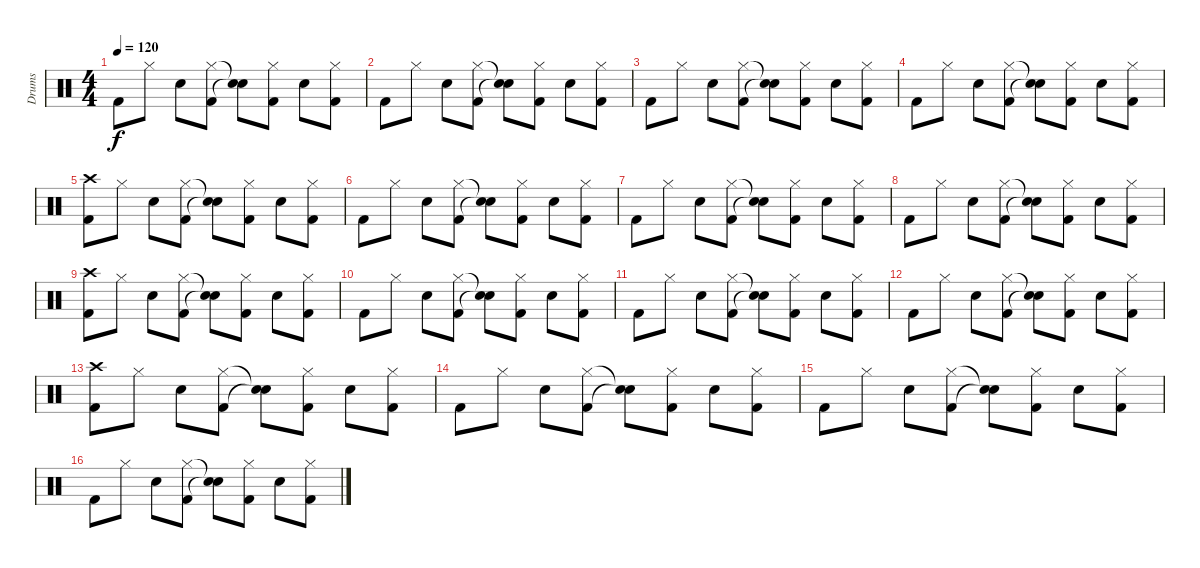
\track ("Drums" "Drums") {instrument percussion}
\staff {score}
\articulation defaults
\ts (4 4)
\tempo 120
\clef neutral
\ks c "Kick (hit) 2".8{dy f} "Hi-Hat (closed)".8 "Electric Snare (hit)".8
("Hi-Hat (closed)" "Kick (hit) 2").8 ("Snare (hit)"{t} "Snare (hit)"{t}).8 ("Hi-Hat (closed)" "Kick (hit) 2").8 "Electric Snare (hit)".8 ("Hi-Hat (closed)" "Kick (hit) 2").8 |
"Kick (hit) 2".8 "Hi-Hat (closed)".8 "Electric Snare (hit)".8 ("Hi-Hat (closed)" "Kick (hit) 2").8 ("Snare (hit)"{t} "Snare (hit)"{t}).8 ("Hi-Hat (closed)" "Kick (hit) 2").8 "Electric Snare (hit)".8 ("Hi-Hat (closed)" "Kick (hit) 2").8 |
"Kick (hit) 2".8 "Hi-Hat (closed)".8 "Electric Snare (hit)".8 ("Hi-Hat (closed)" "Kick (hit) 2").8 ("Snare (hit)"{t} "Snare (hit)"{t}).8 ("Hi-Hat (closed)" "Kick (hit) 2").8 "Electric Snare (hit)".8 ("Hi-Hat (closed)" "Kick (hit) 2").8 |
"Kick (hit) 2".8 "Hi-Hat (closed)".8 "Electric Snare (hit)".8 ("Hi-Hat (closed)" "Kick (hit) 2").8 ("Snare (hit)"{t} "Snare (hit)"{t}).8 ("Hi-Hat (closed)" "Kick (hit) 2").8 "Electric Snare (hit)".8 ("Hi-Hat (closed)" "Kick (hit) 2").8 |
("Crash high (hit)" "Kick (hit) 2").8 "Hi-Hat (closed)".8 "Electric Snare (hit)".8 ("Hi-Hat (closed)" "Kick (hit) 2").8 ("Snare (hit)"{t} "Snare (hit)"{t}).8 ("Hi-Hat (closed)" "Kick (hit) 2").8 "Electric Snare (hit)".8 ("Hi-Hat (closed)" "Kick (hit) 2").8 |
"Kick (hit) 2".8 "Hi-Hat (closed)".8 "Electric Snare (hit)".8 ("Hi-Hat (closed)" "Kick (hit) 2").8 ("Snare (hit)"{t} "Snare (hit)"{t}).8 ("Hi-Hat (closed)" "Kick (hit) 2").8 "Electric Snare (hit)".8 ("Hi-Hat (closed)" "Kick (hit) 2").8 |
"Kick (hit) 2".8 "Hi-Hat (closed)".8 "Electric Snare (hit)".8 ("Hi-Hat (closed)" "Kick (hit) 2").8 ("Snare (hit)"{t} "Snare (hit)"{t}).8 ("Hi-Hat (closed)" "Kick (hit) 2").8 "Electric Snare (hit)".8 ("Hi-Hat (closed)" "Kick (hit) 2").8 |
"Kick (hit) 2".8 "Hi-Hat (closed)".8 "Electric Snare (hit)".8 ("Hi-Hat (closed)" "Kick (hit) 2").8 ("Snare (hit)"{t} "Snare (hit)"{t}).8 ("Hi-Hat (closed)" "Kick (hit) 2").8 "Electric Snare (hit)".8 ("Hi-Hat (closed)" "Kick (hit) 2").8 |
("Crash high (hit)" "Kick (hit) 2").8 "Hi-Hat (closed)".8 "Electric Snare (hit)".8 ("Hi-Hat (closed)" "Kick (hit) 2").8 ("Snare (hit)"{t} "Snare (hit)"{t}).8 ("Hi-Hat (closed)" "Kick (hit) 2").8 "Electric Snare (hit)".8 ("Hi-Hat (closed)" "Kick (hit) 2").8 |
"Kick (hit) 2".8 "Hi-Hat (closed)".8 "Electric Snare (hit)".8 ("Hi-Hat (closed)" "Kick (hit) 2").8 ("Snare (hit)"{t} "Snare (hit)"{t}).8 ("Hi-Hat (closed)" "Kick (hit) 2").8 "Electric Snare (hit)".8 ("Hi-Hat (closed)" "Kick (hit) 2").8 |
"Kick (hit) 2".8 "Hi-Hat (closed)".8 "Electric Snare (hit)".8 ("Hi-Hat (closed)" "Kick (hit) 2").8 ("Snare (hit)"{t} "Snare (hit)"{t}).8 ("Hi-Hat (closed)" "Kick (hit) 2").8 "Electric Snare (hit)".8 ("Hi-Hat (closed)" "Kick (hit) 2").8 |
"Kick (hit) 2".8 "Hi-Hat (closed)".8 "Electric Snare (hit)".8 ("Hi-Hat (closed)" "Kick (hit) 2").8 ("Snare (hit)"{t} "Snare (hit)"{t}).8 ("Hi-Hat (closed)" "Kick (hit) 2").8 "Electric Snare (hit)".8 ("Hi-Hat (closed)" "Kick (hit) 2").8 |
("Crash high (hit)" "Kick (hit) 2").8 "Hi-Hat (closed)".8 "Electric Snare (hit)".8 ("Hi-Hat (closed)" "Kick (hit) 2").8 ("Snare (hit)"{t} "Snare (hit)"{t}).8 ("Hi-Hat (closed)" "Kick (hit) 2").8 "Electric Snare (hit)".8 ("Hi-Hat (closed)" "Kick (hit) 2").8 |
"Kick (hit) 2".8 "Hi-Hat (closed)".8 "Electric Snare (hit)".8 ("Hi-Hat (closed)" "Kick (hit) 2").8 ("Snare (hit)"{t} "Snare (hit)"{t}).8 ("Hi-Hat (closed)" "Kick (hit) 2").8 "Electric Snare (hit)".8 ("Hi-Hat (closed)" "Kick (hit) 2").8 |
"Kick (hit) 2".8 "Hi-Hat (closed)".8 "Electric Snare (hit)".8 ("Hi-Hat (closed)" "Kick (hit) 2").8 ("Snare (hit)"{t} "Snare (hit)"{t}).8 ("Hi-Hat (closed)" "Kick (hit) 2").8 "Electric Snare (hit)".8 ("Hi-Hat (closed)" "Kick (hit) 2").8 |
"Kick (hit) 2".8 "Hi-Hat (closed)".8 "Electric Snare (hit)".8 ("Hi-Hat (closed)" "Kick (hit) 2").8 ("Snare (hit)"{t} "Snare (hit)"{t}).8 ("Hi-Hat (closed)" "Kick (hit) 2").8 "Electric Snare (hit)".8 ("Hi-Hat (closed)" "Kick (hit) 2").8
